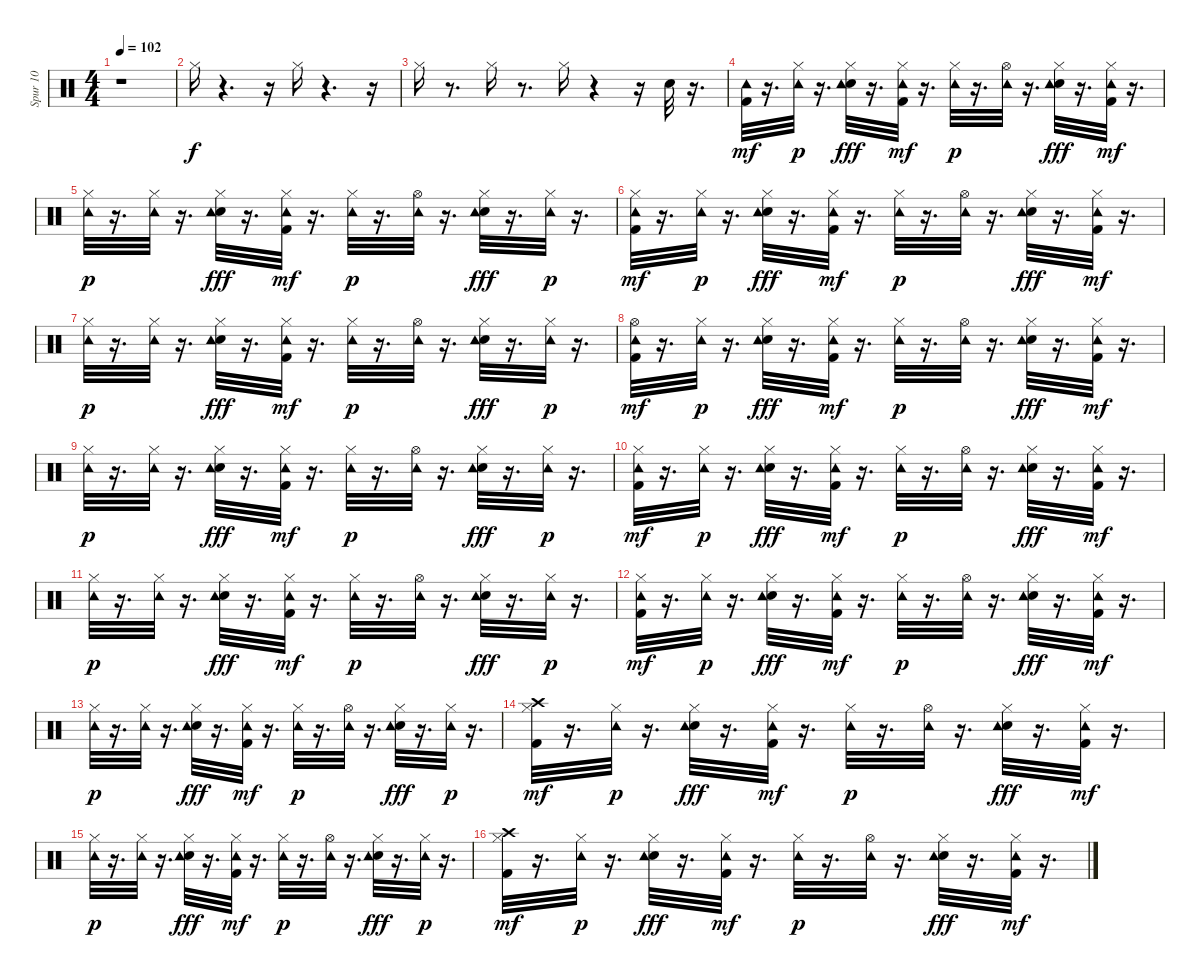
\track ("Spur 10" "Spur 10") {instrument percussion}
\staff {score}
\articulation defaults
\ts (4 4)
\tempo 102
\clef neutral
\ks c
r.1{dy f} |
"Hi-Hat (closed)".16 r.4{d} r.16 "Hi-Hat (closed)".16 r.4{d} r.16 |
"Hi-Hat (closed)".16 r.8{d} "Hi-Hat (closed)".16 r.8{d} "Hi-Hat (closed)".16 r.4 r.16 "Electric Snare (hit)".32 r.16{d} |
("Tambourine (hit)" "Kick (hit) 2").32{dy mf} r.16{d} ("Hi-Hat (closed)" "Tambourine (hit)").32{dy p} r.16{d} ("Electric Snare (hit)" "Tambourine (hit)" "Hi-Hat (closed)").32{dy fff} r.16{d} ("Hi-Hat (closed)" "Tambourine (hit)" "Kick (hit) 2").32{dy mf} r.16{d} ("Hi-Hat (closed)" "Tambourine (hit)").32{dy p} r.16{d} ("Hi-Hat (open)" "Tambourine (hit)").32 r.16{d} ("Electric Snare (hit)" "Tambourine (hit)" "Hi-Hat (closed)").32{dy fff} r.16{d} ("Hi-Hat (closed)" "Tambourine (hit)" "Kick (hit) 2").32{dy mf} r.16{d} |
("Hi-Hat (closed)" "Tambourine (hit)").32{dy p} r.16{d} ("Hi-Hat (closed)" "Tambourine (hit)").32 r.16{d} ("Electric Snare (hit)" "Tambourine (hit)" "Hi-Hat (closed)").32{dy fff} r.16{d} ("Hi-Hat (closed)" "Tambourine (hit)" "Kick (hit) 2").32{dy mf} r.16{d} ("Hi-Hat (closed)" "Tambourine (hit)").32{dy p} r.16{d} ("Hi-Hat (open)" "Tambourine (hit)").32 r.16{d} ("Electric Snare (hit)" "Tambourine (hit)" "Hi-Hat (closed)").32{dy fff} r.16{d} ("Hi-Hat (closed)" "Tambourine (hit)").32{dy p} r.16{d} |
("Hi-Hat (closed)" "Tambourine (hit)" "Kick (hit) 2").32{dy mf} r.16{d} ("Hi-Hat (closed)" "Tambourine (hit)").32{dy p} r.16{d} ("Electric Snare (hit)" "Tambourine (hit)" "Hi-Hat (closed)").32{dy fff} r.16{d} ("Hi-Hat (closed)" "Tambourine (hit)" "Kick (hit) 2").32{dy mf} r.16{d} ("Hi-Hat (closed)" "Tambourine (hit)").32{dy p} r.16{d} ("Hi-Hat (open)" "Tambourine (hit)").32 r.16{d} ("Electric Snare (hit)" "Tambourine (hit)" "Hi-Hat (closed)").32{dy fff} r.16{d} ("Hi-Hat (closed)" "Tambourine (hit)" "Kick (hit) 2").32{dy mf} r.16{d} |
("Hi-Hat (closed)" "Tambourine (hit)").32{dy p} r.16{d} ("Hi-Hat (closed)" "Tambourine (hit)").32 r.16{d} ("Electric Snare (hit)" "Tambourine (hit)" "Hi-Hat (closed)").32{dy fff} r.16{d} ("Hi-Hat (closed)" "Tambourine (hit)" "Kick (hit) 2").32{dy mf} r.16{d} ("Hi-Hat (closed)" "Tambourine (hit)").32{dy p} r.16{d} ("Hi-Hat (open)" "Tambourine (hit)").32 r.16{d} ("Electric Snare (hit)" "Tambourine (hit)" "Hi-Hat (closed)").32{dy fff} r.16{d} ("Hi-Hat (closed)" "Tambourine (hit)").32{dy p} r.16{d} |
("Hi-Hat (open)" "Tambourine (hit)" "Kick (hit) 2").32{dy mf} r.16{d} ("Hi-Hat (closed)" "Tambourine (hit)").32{dy p} r.16{d} ("Electric Snare (hit)" "Tambourine (hit)" "Hi-Hat (closed)").32{dy fff} r.16{d} ("Hi-Hat (closed)" "Tambourine (hit)" "Kick (hit) 2").32{dy mf} r.16{d} ("Hi-Hat (closed)" "Tambourine (hit)").32{dy p} r.16{d} ("Hi-Hat (open)" "Tambourine (hit)").32 r.16{d} ("Electric Snare (hit)" "Tambourine (hit)" "Hi-Hat (closed)").32{dy fff} r.16{d} ("Hi-Hat (closed)" "Tambourine (hit)" "Kick (hit) 2").32{dy mf} r.16{d} |
("Hi-Hat (closed)" "Tambourine (hit)").32{dy p} r.16{d} ("Hi-Hat (closed)" "Tambourine (hit)").32 r.16{d} ("Electric Snare (hit)" "Tambourine (hit)" "Hi-Hat (closed)").32{dy fff} r.16{d} ("Hi-Hat (closed)" "Tambourine (hit)" "Kick (hit) 2").32{dy mf} r.16{d} ("Hi-Hat (closed)" "Tambourine (hit)").32{dy p} r.16{d} ("Hi-Hat (open)" "Tambourine (hit)").32 r.16{d} ("Electric Snare (hit)" "Tambourine (hit)" "Hi-Hat (closed)").32{dy fff} r.16{d} ("Hi-Hat (closed)" "Tambourine (hit)").32{dy p} r.16{d} |
("Hi-Hat (closed)" "Tambourine (hit)" "Kick (hit) 2").32{dy mf} r.16{d} ("Hi-Hat (closed)" "Tambourine (hit)").32{dy p} r.16{d} ("Electric Snare (hit)" "Tambourine (hit)" "Hi-Hat (closed)").32{dy fff} r.16{d} ("Hi-Hat (closed)" "Tambourine (hit)" "Kick (hit) 2").32{dy mf} r.16{d} ("Hi-Hat (closed)" "Tambourine (hit)").32{dy p} r.16{d} ("Hi-Hat (open)" "Tambourine (hit)").32 r.16{d} ("Electric Snare (hit)" "Tambourine (hit)" "Hi-Hat (closed)").32{dy fff} r.16{d} ("Hi-Hat (closed)" "Tambourine (hit)" "Kick (hit) 2").32{dy mf} r.16{d} |
("Hi-Hat (closed)" "Tambourine (hit)").32{dy p} r.16{d} ("Hi-Hat (closed)" "Tambourine (hit)").32 r.16{d} ("Electric Snare (hit)" "Tambourine (hit)" "Hi-Hat (closed)").32{dy fff} r.16{d} ("Hi-Hat (closed)" "Tambourine (hit)" "Kick (hit) 2").32{dy mf} r.16{d} ("Hi-Hat (closed)" "Tambourine (hit)").32{dy p} r.16{d} ("Hi-Hat (open)" "Tambourine (hit)").32 r.16{d} ("Electric Snare (hit)" "Tambourine (hit)" "Hi-Hat (closed)").32{dy fff} r.16{d} ("Hi-Hat (closed)" "Tambourine (hit)").32{dy p} r.16{d} |
("Hi-Hat (closed)" "Tambourine (hit)" "Kick (hit) 2").32{dy mf} r.16{d} ("Hi-Hat (closed)" "Tambourine (hit)").32{dy p} r.16{d} ("Electric Snare (hit)" "Tambourine (hit)" "Hi-Hat (closed)").32{dy fff} r.16{d} ("Hi-Hat (closed)" "Tambourine (hit)" "Kick (hit) 2").32{dy mf} r.16{d} ("Hi-Hat (closed)" "Tambourine (hit)").32{dy p} r.16{d} ("Hi-Hat (open)" "Tambourine (hit)").32 r.16{d} ("Electric Snare (hit)" "Tambourine (hit)" "Hi-Hat (closed)").32{dy fff} r.16{d} ("Hi-Hat (closed)" "Tambourine (hit)" "Kick (hit) 2").32{dy mf} r.16{d} |
("Hi-Hat (closed)" "Tambourine (hit)").32{dy p} r.16{d} ("Hi-Hat (closed)" "Tambourine (hit)").32 r.16{d} ("Electric Snare (hit)" "Tambourine (hit)" "Hi-Hat (closed)").32{dy fff} r.16{d} ("Hi-Hat (closed)" "Tambourine (hit)" "Kick (hit) 2").32{dy mf} r.16{d} ("Hi-Hat (closed)" "Tambourine (hit)").32{dy p} r.16{d} ("Hi-Hat (open)" "Tambourine (hit)").32 r.16{d} ("Electric Snare (hit)" "Tambourine (hit)" "Hi-Hat (closed)").32{dy fff} r.16{d} ("Hi-Hat (closed)" "Tambourine (hit)").32{dy p} r.16{d} |
("Hi-Hat (closed)" "Crash high (hit)" "Kick (hit) 2").32{dy mf} r.16{d} ("Hi-Hat (closed)" "Tambourine (hit)").32{dy p} r.16{d} ("Electric Snare (hit)" "Tambourine (hit)" "Hi-Hat (closed)").32{dy fff} r.16{d} ("Hi-Hat (closed)" "Tambourine (hit)" "Kick (hit) 2").32{dy mf} r.16{d} ("Hi-Hat (closed)" "Tambourine (hit)").32{dy p} r.16{d} ("Hi-Hat (open)" "Tambourine (hit)").32 r.16{d} ("Electric Snare (hit)" "Tambourine (hit)" "Hi-Hat (closed)").32{dy fff} r.16{d} ("Hi-Hat (closed)" "Tambourine (hit)" "Kick (hit) 2").32{dy mf} r.16{d} |
("Hi-Hat (closed)" "Tambourine (hit)").32{dy p} r.16{d} ("Hi-Hat (closed)" "Tambourine (hit)").32 r.16{d} ("Electric Snare (hit)" "Tambourine (hit)" "Hi-Hat (closed)").32{dy fff} r.16{d} ("Hi-Hat (closed)" "Tambourine (hit)" "Kick (hit) 2").32{dy mf} r.16{d} ("Hi-Hat (closed)" "Tambourine (hit)").32{dy p} r.16{d} ("Hi-Hat (open)" "Tambourine (hit)").32 r.16{d} ("Electric Snare (hit)" "Tambourine (hit)" "Hi-Hat (closed)").32{dy fff} r.16{d} ("Hi-Hat (closed)" "Tambourine (hit)").32{dy p} r.16{d} |
("Hi-Hat (closed)" "Crash high (hit)" "Kick (hit) 2").32{dy mf} r.16{d} ("Hi-Hat (closed)" "Tambourine (hit)").32{dy p} r.16{d} ("Electric Snare (hit)" "Tambourine (hit)" "Hi-Hat (closed)").32{dy fff} r.16{d} ("Hi-Hat (closed)" "Tambourine (hit)" "Kick (hit) 2").32{dy mf} r.16{d} ("Hi-Hat (closed)" "Tambourine (hit)").32{dy p} r.16{d} ("Hi-Hat (open)" "Tambourine (hit)").32 r.16{d} ("Electric Snare (hit)" "Tambourine (hit)" "Hi-Hat (closed)").32{dy fff} r.16{d} ("Hi-Hat (closed)" "Tambourine (hit)" "Kick (hit) 2").32{dy mf} r.16{d}
